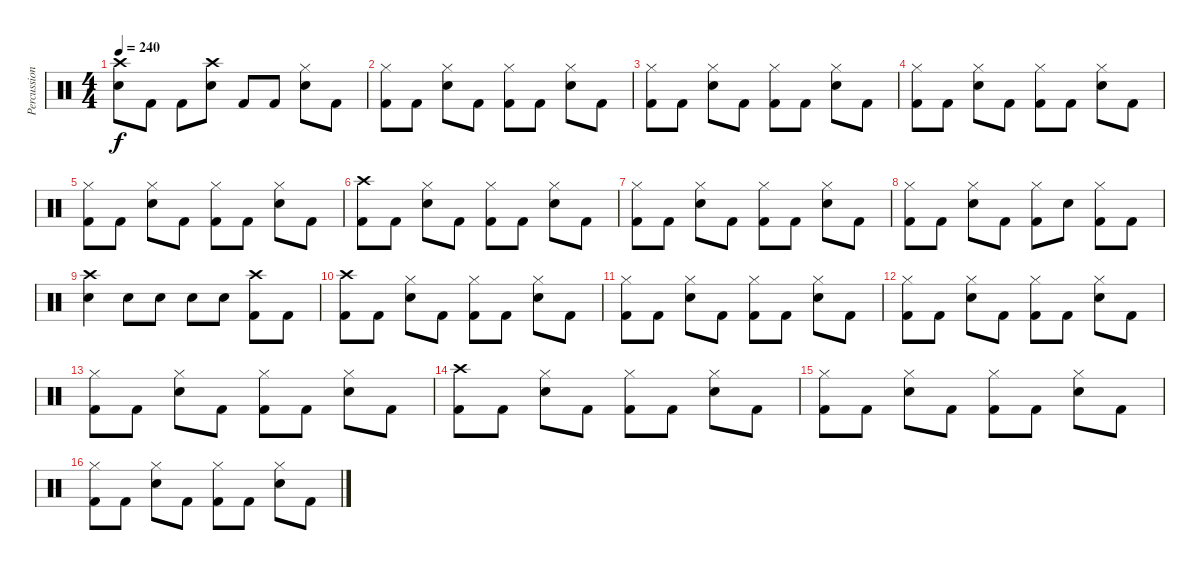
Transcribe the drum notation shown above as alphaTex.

\track ("Percussion" "Percussion") {instrument percussion}
\staff {score}
\articulation defaults
\ts (4 4)
\tempo 240
\clef neutral
\ks c
("Snare (hit) 2" "Crash high (hit)").8{dy f} "Kick (hit) 2".8 "Kick (hit) 2".8 ("Snare (hit) 2" "Crash high (hit)").8 "Kick (hit) 2".8 "Kick (hit) 2".8 ("Snare (hit) 2" "Hi-Hat (closed)").8 "Kick (hit) 2".8 |
("Kick (hit) 2" "Hi-Hat (closed)").8 "Kick (hit) 2".8 ("Snare (hit) 2" "Hi-Hat (closed)").8 "Kick (hit) 2".8 ("Kick (hit) 2" "Hi-Hat (closed)").8 "Kick (hit) 2".8 ("Snare (hit) 2" "Hi-Hat (closed)").8 "Kick (hit) 2".8 |
("Kick (hit) 2" "Hi-Hat (closed)").8 "Kick (hit) 2".8 ("Snare (hit) 2" "Hi-Hat (closed)").8 "Kick (hit) 2".8 ("Kick (hit) 2" "Hi-Hat (closed)").8 "Kick (hit) 2".8 ("Snare (hit) 2" "Hi-Hat (closed)").8 "Kick (hit) 2".8 |
("Kick (hit) 2" "Hi-Hat (closed)").8 "Kick (hit) 2".8 ("Snare (hit) 2" "Hi-Hat (closed)").8 "Kick (hit) 2".8 ("Kick (hit) 2" "Hi-Hat (closed)").8 "Kick (hit) 2".8 ("Snare (hit) 2" "Hi-Hat (closed)").8 "Kick (hit) 2".8 |
("Kick (hit) 2" "Hi-Hat (closed)").8 "Kick (hit) 2".8 ("Snare (hit) 2" "Hi-Hat (closed)").8 "Kick (hit) 2".8 ("Kick (hit) 2" "Hi-Hat (closed)").8 "Kick (hit) 2".8 ("Snare (hit) 2" "Hi-Hat (closed)").8 "Kick (hit) 2".8 |
("Kick (hit) 2" "Crash high (hit)").8 "Kick (hit) 2".8 ("Snare (hit) 2" "Hi-Hat (closed)").8 "Kick (hit) 2".8 ("Kick (hit) 2" "Hi-Hat (closed)").8 "Kick (hit) 2".8 ("Snare (hit) 2" "Hi-Hat (closed)").8 "Kick (hit) 2".8 |
("Kick (hit) 2" "Hi-Hat (closed)").8 "Kick (hit) 2".8 ("Snare (hit) 2" "Hi-Hat (closed)").8 "Kick (hit) 2".8 ("Kick (hit) 2" "Hi-Hat (closed)").8 "Kick (hit) 2".8 ("Snare (hit) 2" "Hi-Hat (closed)").8 "Kick (hit) 2".8 |
("Kick (hit) 2" "Hi-Hat (closed)").8 "Kick (hit) 2".8 ("Snare (hit) 2" "Hi-Hat (closed)").8 "Kick (hit) 2".8 ("Kick (hit) 2" "Hi-Hat (closed)").8 "Snare (hit) 2".8 ("Kick (hit) 2" "Hi-Hat (closed)").8 "Kick (hit) 2".8 |
("Snare (hit) 2" "Crash high (hit)").4 "Snare (hit) 2".8 "Snare (hit) 2".8 "Snare (hit) 2".8 "Snare (hit) 2".8 ("Kick (hit) 2" "Crash high (hit)").8 "Kick (hit) 2".8 |
("Kick (hit) 2" "Crash high (hit)").8 "Kick (hit) 2".8 ("Snare (hit) 2" "Hi-Hat (closed)").8 "Kick (hit) 2".8 ("Kick (hit) 2" "Hi-Hat (closed)").8 "Kick (hit) 2".8 ("Snare (hit) 2" "Hi-Hat (closed)").8 "Kick (hit) 2".8 |
("Kick (hit) 2" "Hi-Hat (closed)").8 "Kick (hit) 2".8 ("Snare (hit) 2" "Hi-Hat (closed)").8 "Kick (hit) 2".8 ("Kick (hit) 2" "Hi-Hat (closed)").8 "Kick (hit) 2".8 ("Snare (hit) 2" "Hi-Hat (closed)").8 "Kick (hit) 2".8 |
("Kick (hit) 2" "Hi-Hat (closed)").8 "Kick (hit) 2".8 ("Snare (hit) 2" "Hi-Hat (closed)").8 "Kick (hit) 2".8 ("Kick (hit) 2" "Hi-Hat (closed)").8 "Kick (hit) 2".8 ("Snare (hit) 2" "Hi-Hat (closed)").8 "Kick (hit) 2".8 |
("Kick (hit) 2" "Hi-Hat (closed)").8 "Kick (hit) 2".8 ("Snare (hit) 2" "Hi-Hat (closed)").8 "Kick (hit) 2".8 ("Kick (hit) 2" "Hi-Hat (closed)").8 "Kick (hit) 2".8 ("Snare (hit) 2" "Hi-Hat (closed)").8 "Kick (hit) 2".8 |
("Kick (hit) 2" "Crash high (hit)").8 "Kick (hit) 2".8 ("Snare (hit) 2" "Hi-Hat (closed)").8 "Kick (hit) 2".8 ("Kick (hit) 2" "Hi-Hat (closed)").8 "Kick (hit) 2".8 ("Snare (hit) 2" "Hi-Hat (closed)").8 "Kick (hit) 2".8 |
("Kick (hit) 2" "Hi-Hat (closed)").8 "Kick (hit) 2".8 ("Snare (hit) 2" "Hi-Hat (closed)").8 "Kick (hit) 2".8 ("Kick (hit) 2" "Hi-Hat (closed)").8 "Kick (hit) 2".8 ("Snare (hit) 2" "Hi-Hat (closed)").8 "Kick (hit) 2".8 |
("Kick (hit) 2" "Hi-Hat (closed)").8 "Kick (hit) 2".8 ("Snare (hit) 2" "Hi-Hat (closed)").8 "Kick (hit) 2".8 ("Kick (hit) 2" "Hi-Hat (closed)").8 "Kick (hit) 2".8 ("Snare (hit) 2" "Hi-Hat (closed)").8 "Kick (hit) 2".8
